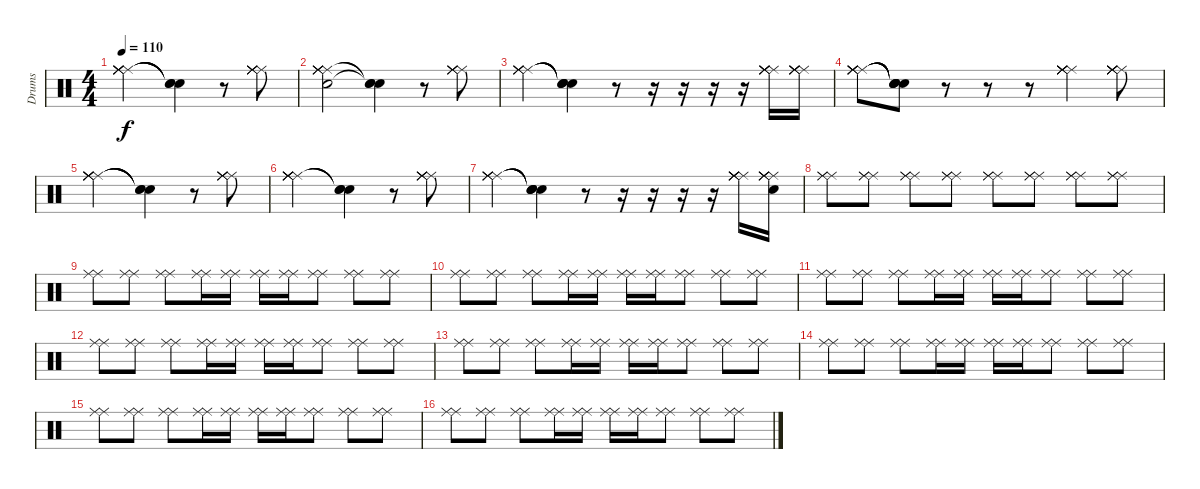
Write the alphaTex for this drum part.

\track ("Drums" "Drums") {instrument percussion}
\staff {score}
\articulation defaults
\ts (4 4)
\tempo 110
\clef neutral
\ks c
("Ride (middle)" "Ride (middle)" "Ride (middle)" "Ride (middle)" "Ride (middle)" "Ride (middle)").2{dy f} ("Snare (hit)"{t} "Snare (hit)"{t} "Snare (hit)"{t}).4 r.8 ("Ride (middle)" "Ride (middle)" "Ride (middle)" "Ride (middle)" "Ride (middle)").8 |
("Ride (middle)" "Snare (hit)" "Ride (middle)" "Ride (middle)" "Ride (middle)" "Ride (middle)").2 ("Snare (hit)"{t} "Snare (hit)"{t} "Snare (hit)"{t}).4 r.8 ("Ride (middle)" "Ride (middle)" "Ride (middle)" "Ride (middle)" "Ride (middle)").8 |
("Ride (middle)" "Ride (middle)" "Ride (middle)" "Ride (middle)" "Ride (middle)").4 ("Snare (hit)"{t} "Snare (hit)"{t} "Snare (hit)"{t} "Snare (hit)"{t}).4 r.8 r.16 r.16 r.16 r.16 ("Ride (middle)" "Ride (middle)" "Ride (middle)" "Ride (middle)" "Ride (middle)" "Ride (middle)").16 ("Ride (middle)" "Ride (middle)" "Ride (middle)" "Ride (middle)" "Ride (middle)" "Ride (middle)").16 |
("Ride (middle)" "Ride (middle)" "Ride (middle)" "Ride (middle)" "Ride (middle)" "Ride (middle)").8 ("Snare (hit)"{t} "Snare (hit)"{t} "Snare (hit)"{t} "Snare (hit)"{t} "Snare (hit)"{t}).8 r.8 r.8 r.8 ("Ride (middle)" "Ride (middle)" "Ride (middle)" "Ride (middle)" "Ride (middle)" "Ride (middle)").4 ("Ride (middle)" "Ride (middle)" "Ride (middle)" "Ride (middle)" "Ride (middle)" "Ride (middle)").8 |
("Ride (middle)" "Ride (middle)" "Ride (middle)" "Ride (middle)" "Ride (middle)" "Ride (middle)").2 ("Snare (hit)"{t} "Snare (hit)"{t} "Snare (hit)"{t}).4 r.8 ("Ride (middle)" "Ride (middle)" "Ride (middle)" "Ride (middle)" "Ride (middle)").8 |
("Ride (middle)" "Ride (middle)" "Ride (middle)" "Ride (middle)" "Ride (middle)" "Ride (middle)").2 ("Snare (hit)"{t} "Snare (hit)"{t} "Snare (hit)"{t}).4 r.8 ("Ride (middle)" "Ride (middle)" "Ride (middle)" "Ride (middle)" "Ride (middle)").8 |
("Ride (middle)" "Ride (middle)" "Ride (middle)" "Ride (middle)" "Ride (middle)").4 ("Snare (hit)"{t} "Snare (hit)"{t} "Snare (hit)"{t} "Snare (hit)"{t}).4 r.8 r.16 r.16 r.16 r.16 ("Ride (middle)" "Ride (middle)" "Ride (middle)" "Ride (middle)" "Ride (middle)" "Ride (middle)").16 ("Ride (middle)" "Ride (middle)" "Ride (middle)" "Ride (middle)" "Ride (middle)" "Snare (hit)").16 |
("Ride (middle)" "Ride (middle)" "Ride (middle)").8 ("Ride (middle)" "Ride (middle)" "Ride (middle)").8 ("Ride (middle)" "Ride (middle)" "Ride (middle)").8 ("Ride (middle)" "Ride (middle)" "Ride (middle)").8 ("Ride (middle)" "Ride (middle)" "Ride (middle)").8 ("Ride (middle)" "Ride (middle)" "Ride (middle)").8 ("Ride (middle)" "Ride (middle)" "Ride (middle)").8 ("Ride (middle)" "Ride (middle)" "Ride (middle)").8 |
("Ride (middle)" "Ride (middle)").8 ("Ride (middle)" "Ride (middle)").8 ("Ride (middle)" "Ride (middle)").8 ("Ride (middle)" "Ride (middle)").16 ("Ride (middle)" "Ride (middle)").16 ("Ride (middle)" "Ride (middle)").16 ("Ride (middle)" "Ride (middle)").16 ("Ride (middle)" "Ride (middle)").8 ("Ride (middle)" "Ride (middle)").8 ("Ride (middle)" "Ride (middle)").8 |
("Ride (middle)" "Ride (middle)").8 ("Ride (middle)" "Ride (middle)").8 ("Ride (middle)" "Ride (middle)").8 ("Ride (middle)" "Ride (middle)").16 ("Ride (middle)" "Ride (middle)").16 ("Ride (middle)" "Ride (middle)").16 ("Ride (middle)" "Ride (middle)").16 ("Ride (middle)" "Ride (middle)").8 ("Ride (middle)" "Ride (middle)").8 ("Ride (middle)" "Ride (middle)").8 |
("Ride (middle)" "Ride (middle)").8 ("Ride (middle)" "Ride (middle)").8 ("Ride (middle)" "Ride (middle)").8 ("Ride (middle)" "Ride (middle)").16 ("Ride (middle)" "Ride (middle)").16 ("Ride (middle)" "Ride (middle)").16 ("Ride (middle)" "Ride (middle)").16 ("Ride (middle)" "Ride (middle)").8 ("Ride (middle)" "Ride (middle)").8 ("Ride (middle)" "Ride (middle)").8 |
("Ride (middle)" "Ride (middle)").8 ("Ride (middle)" "Ride (middle)").8 ("Ride (middle)" "Ride (middle)").8 ("Ride (middle)" "Ride (middle)").16 ("Ride (middle)" "Ride (middle)").16 ("Ride (middle)" "Ride (middle)").16 ("Ride (middle)" "Ride (middle)").16 ("Ride (middle)" "Ride (middle)").8 ("Ride (middle)" "Ride (middle)").8 ("Ride (middle)" "Ride (middle)").8 |
("Ride (middle)" "Ride (middle)").8 ("Ride (middle)" "Ride (middle)").8 ("Ride (middle)" "Ride (middle)").8 ("Ride (middle)" "Ride (middle)").16 ("Ride (middle)" "Ride (middle)").16 ("Ride (middle)" "Ride (middle)").16 ("Ride (middle)" "Ride (middle)").16 ("Ride (middle)" "Ride (middle)").8 ("Ride (middle)" "Ride (middle)").8 ("Ride (middle)" "Ride (middle)").8 |
("Ride (middle)" "Ride (middle)").8 ("Ride (middle)" "Ride (middle)").8 ("Ride (middle)" "Ride (middle)").8 ("Ride (middle)" "Ride (middle)").16 ("Ride (middle)" "Ride (middle)").16 ("Ride (middle)" "Ride (middle)").16 ("Ride (middle)" "Ride (middle)").16 ("Ride (middle)" "Ride (middle)").8 ("Ride (middle)" "Ride (middle)").8 ("Ride (middle)" "Ride (middle)").8 |
("Ride (middle)" "Ride (middle)").8 ("Ride (middle)" "Ride (middle)").8 ("Ride (middle)" "Ride (middle)").8 ("Ride (middle)" "Ride (middle)").16 ("Ride (middle)" "Ride (middle)").16 ("Ride (middle)" "Ride (middle)").16 ("Ride (middle)" "Ride (middle)").16 ("Ride (middle)" "Ride (middle)").8 ("Ride (middle)" "Ride (middle)").8 ("Ride (middle)" "Ride (middle)").8 |
("Ride (middle)" "Ride (middle)").8 ("Ride (middle)" "Ride (middle)").8 ("Ride (middle)" "Ride (middle)").8 ("Ride (middle)" "Ride (middle)").16 ("Ride (middle)" "Ride (middle)").16 ("Ride (middle)" "Ride (middle)").16 ("Ride (middle)" "Ride (middle)").16 ("Ride (middle)" "Ride (middle)").8 ("Ride (middle)" "Ride (middle)").8 ("Ride (middle)" "Ride (middle)").8
